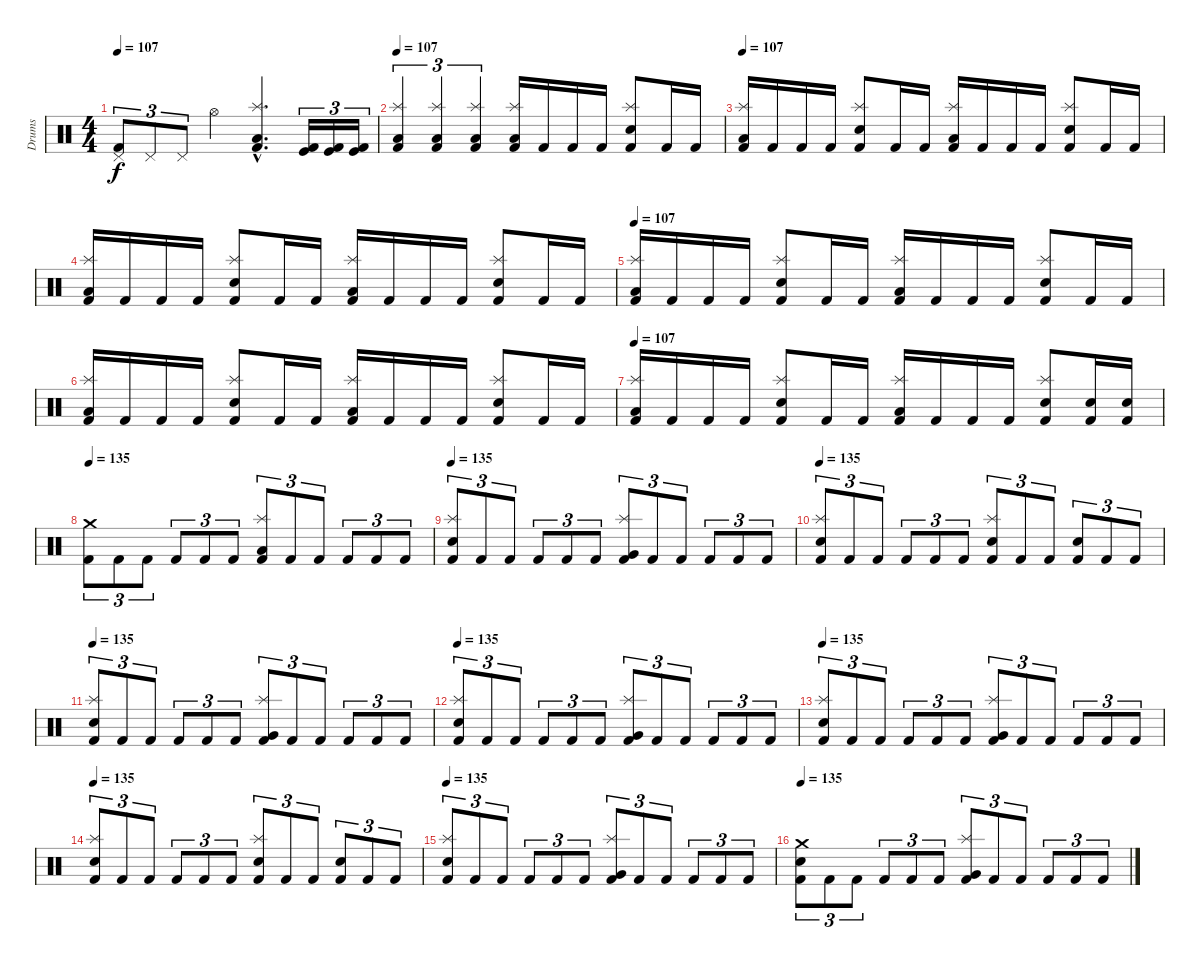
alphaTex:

\track ("Drums" "Drums") {instrument percussion}
\staff {score}
\articulation defaults
\ts (4 4)
\tempo 107
\clef neutral
\ks c
("Pedal Hi-Hat (hit)" "Kick (hit) 2").8{tu (3 2) dy f volume 12} "Pedal Hi-Hat (hit)".8{tu (3 2)} "Pedal Hi-Hat (hit)".8{tu (3 2)} "Hi-Hat (open)".4 ("Splash (hit)"{hac} "Low Floor Tom (hit)"{hac} "Kick (hit) 2"{hac}).4{d} ("Kick (hit)" "Kick (hit) 2").16{tu (3 2)} ("Kick (hit)" "Kick (hit) 2").16{tu (3 2)} ("Kick (hit)" "Kick (hit) 2").16{tu (3 2)} |
\tempo 107
("Splash (hit)" "Low Floor Tom (hit)" "Kick (hit) 2").4{tu (3 2)} ("Splash (hit)" "Low Floor Tom (hit)" "Kick (hit) 2").4{tu (3 2)} ("Splash (hit)" "Low Floor Tom (hit)" "Kick (hit) 2").4{tu (3 2)} ("Splash (hit)" "Low Floor Tom (hit)" "Kick (hit) 2").16 "Kick (hit) 2".16 "Kick (hit) 2".16 "Kick (hit) 2".16 ("Splash (hit)" "Snare (hit) 2" "Kick (hit) 2").8 "Kick (hit) 2".16 "Kick (hit) 2".16 |
\tempo 107
("Splash (hit)" "Low Floor Tom (hit)" "Kick (hit) 2").16 "Kick (hit) 2".16 "Kick (hit) 2".16 "Kick (hit) 2".16 ("Splash (hit)" "Snare (hit) 2" "Kick (hit) 2").8 "Kick (hit) 2".16 "Kick (hit) 2".16 ("Splash (hit)" "Low Floor Tom (hit)" "Kick (hit) 2").16 "Kick (hit) 2".16 "Kick (hit) 2".16 "Kick (hit) 2".16 ("Splash (hit)" "Snare (hit) 2" "Kick (hit) 2").8 "Kick (hit) 2".16 "Kick (hit) 2".16 |
("Splash (hit)" "Low Floor Tom (hit)" "Kick (hit) 2").16 "Kick (hit) 2".16 "Kick (hit) 2".16 "Kick (hit) 2".16 ("Splash (hit)" "Snare (hit) 2" "Kick (hit) 2").8 "Kick (hit) 2".16 "Kick (hit) 2".16 ("Splash (hit)" "Low Floor Tom (hit)" "Kick (hit) 2").16 "Kick (hit) 2".16 "Kick (hit) 2".16 "Kick (hit) 2".16 ("Splash (hit)" "Snare (hit) 2" "Kick (hit) 2").8 "Kick (hit) 2".16 "Kick (hit) 2".16 |
\tempo 107
("Splash (hit)" "Low Floor Tom (hit)" "Kick (hit) 2").16 "Kick (hit) 2".16 "Kick (hit) 2".16 "Kick (hit) 2".16 ("Splash (hit)" "Snare (hit) 2" "Kick (hit) 2").8 "Kick (hit) 2".16 "Kick (hit) 2".16 ("Splash (hit)" "Low Floor Tom (hit)" "Kick (hit) 2").16 "Kick (hit) 2".16 "Kick (hit) 2".16 "Kick (hit) 2".16 ("Splash (hit)" "Snare (hit) 2" "Kick (hit) 2").8 "Kick (hit) 2".16 "Kick (hit) 2".16 |
("Splash (hit)" "Low Floor Tom (hit)" "Kick (hit) 2").16 "Kick (hit) 2".16 "Kick (hit) 2".16 "Kick (hit) 2".16 ("Splash (hit)" "Snare (hit) 2" "Kick (hit) 2").8 "Kick (hit) 2".16 "Kick (hit) 2".16 ("Splash (hit)" "Low Floor Tom (hit)" "Kick (hit) 2").16 "Kick (hit) 2".16 "Kick (hit) 2".16 "Kick (hit) 2".16 ("Splash (hit)" "Snare (hit) 2" "Kick (hit) 2").8 "Kick (hit) 2".16 "Kick (hit) 2".16 |
\tempo 107
("Splash (hit)" "Low Floor Tom (hit)" "Kick (hit) 2").16 "Kick (hit) 2".16 "Kick (hit) 2".16 "Kick (hit) 2".16 ("Splash (hit)" "Snare (hit) 2" "Kick (hit) 2").8 "Kick (hit) 2".16 "Kick (hit) 2".16 ("Splash (hit)" "Low Floor Tom (hit)" "Kick (hit) 2").16 "Kick (hit) 2".16 "Kick (hit) 2".16 "Kick (hit) 2".16 ("Splash (hit)" "Snare (hit) 2" "Kick (hit) 2").8 ("Snare (hit) 2" "Kick (hit) 2").16 ("Snare (hit) 2" "Kick (hit) 2").16 |
\tempo 135
("Crash medium (hit)" "Kick (hit) 2").8{tu (3 2)} "Kick (hit) 2".8{tu (3 2)} "Kick (hit) 2".8{tu (3 2)} "Kick (hit) 2".8{tu (3 2)} "Kick (hit) 2".8{tu (3 2)} "Kick (hit) 2".8{tu (3 2)} ("Splash (hit)" "Low Floor Tom (hit)" "Kick (hit) 2").8{tu (3 2)} "Kick (hit) 2".8{tu (3 2)} "Kick (hit) 2".8{tu (3 2)} "Kick (hit) 2".8{tu (3 2)} "Kick (hit) 2".8{tu (3 2)} "Kick (hit) 2".8{tu (3 2)} |
\tempo 135
("Splash (hit)" "Snare (hit) 2" "Kick (hit) 2").8{tu (3 2)} "Kick (hit) 2".8{tu (3 2)} "Kick (hit) 2".8{tu (3 2)} "Kick (hit) 2".8{tu (3 2)} "Kick (hit) 2".8{tu (3 2)} "Kick (hit) 2".8{tu (3 2)} ("Splash (hit)" "Very Low Tom (hit)" "Kick (hit) 2").8{tu (3 2)} "Kick (hit) 2".8{tu (3 2)} "Kick (hit) 2".8{tu (3 2)} "Kick (hit) 2".8{tu (3 2)} "Kick (hit) 2".8{tu (3 2)} "Kick (hit) 2".8{tu (3 2)} |
\tempo 135
("Splash (hit)" "Snare (hit) 2" "Kick (hit) 2").8{tu (3 2)} "Kick (hit) 2".8{tu (3 2)} "Kick (hit) 2".8{tu (3 2)} "Kick (hit) 2".8{tu (3 2)} "Kick (hit) 2".8{tu (3 2)} "Kick (hit) 2".8{tu (3 2)} ("Splash (hit)" "Snare (hit) 2" "Kick (hit) 2").8{tu (3 2)} "Kick (hit) 2".8{tu (3 2)} "Kick (hit) 2".8{tu (3 2)} ("Snare (hit) 2" "Kick (hit) 2").8{tu (3 2)} "Kick (hit) 2".8{tu (3 2)} "Kick (hit) 2".8{tu (3 2)} |
\tempo 135
("Splash (hit)" "Snare (hit) 2" "Kick (hit) 2").8{tu (3 2)} "Kick (hit) 2".8{tu (3 2)} "Kick (hit) 2".8{tu (3 2)} "Kick (hit) 2".8{tu (3 2)} "Kick (hit) 2".8{tu (3 2)} "Kick (hit) 2".8{tu (3 2)} ("Splash (hit)" "Very Low Tom (hit)" "Kick (hit) 2").8{tu (3 2)} "Kick (hit) 2".8{tu (3 2)} "Kick (hit) 2".8{tu (3 2)} "Kick (hit) 2".8{tu (3 2)} "Kick (hit) 2".8{tu (3 2)} "Kick (hit) 2".8{tu (3 2)} |
\tempo 135
("Splash (hit)" "Snare (hit) 2" "Kick (hit) 2").8{tu (3 2)} "Kick (hit) 2".8{tu (3 2)} "Kick (hit) 2".8{tu (3 2)} "Kick (hit) 2".8{tu (3 2)} "Kick (hit) 2".8{tu (3 2)} "Kick (hit) 2".8{tu (3 2)} ("Splash (hit)" "Very Low Tom (hit)" "Kick (hit) 2").8{tu (3 2)} "Kick (hit) 2".8{tu (3 2)} "Kick (hit) 2".8{tu (3 2)} "Kick (hit) 2".8{tu (3 2)} "Kick (hit) 2".8{tu (3 2)} "Kick (hit) 2".8{tu (3 2)} |
\tempo 135
("Splash (hit)" "Snare (hit) 2" "Kick (hit) 2").8{tu (3 2)} "Kick (hit) 2".8{tu (3 2)} "Kick (hit) 2".8{tu (3 2)} "Kick (hit) 2".8{tu (3 2)} "Kick (hit) 2".8{tu (3 2)} "Kick (hit) 2".8{tu (3 2)} ("Splash (hit)" "Very Low Tom (hit)" "Kick (hit) 2").8{tu (3 2)} "Kick (hit) 2".8{tu (3 2)} "Kick (hit) 2".8{tu (3 2)} "Kick (hit) 2".8{tu (3 2)} "Kick (hit) 2".8{tu (3 2)} "Kick (hit) 2".8{tu (3 2)} |
\tempo 135
("Splash (hit)" "Snare (hit) 2" "Kick (hit) 2").8{tu (3 2)} "Kick (hit) 2".8{tu (3 2)} "Kick (hit) 2".8{tu (3 2)} "Kick (hit) 2".8{tu (3 2)} "Kick (hit) 2".8{tu (3 2)} "Kick (hit) 2".8{tu (3 2)} ("Splash (hit)" "Snare (hit) 2" "Kick (hit) 2").8{tu (3 2)} "Kick (hit) 2".8{tu (3 2)} "Kick (hit) 2".8{tu (3 2)} ("Snare (hit) 2" "Kick (hit) 2").8{tu (3 2)} "Kick (hit) 2".8{tu (3 2)} "Kick (hit) 2".8{tu (3 2)} |
\tempo 135
("Splash (hit)" "Snare (hit) 2" "Kick (hit) 2").8{tu (3 2)} "Kick (hit) 2".8{tu (3 2)} "Kick (hit) 2".8{tu (3 2)} "Kick (hit) 2".8{tu (3 2)} "Kick (hit) 2".8{tu (3 2)} "Kick (hit) 2".8{tu (3 2)} ("Splash (hit)" "Very Low Tom (hit)" "Kick (hit) 2").8{tu (3 2)} "Kick (hit) 2".8{tu (3 2)} "Kick (hit) 2".8{tu (3 2)} "Kick (hit) 2".8{tu (3 2)} "Kick (hit) 2".8{tu (3 2)} "Kick (hit) 2".8{tu (3 2)} |
\tempo 135
("Crash medium (hit)" "Snare (hit) 2" "Kick (hit) 2").8{tu (3 2)} "Kick (hit) 2".8{tu (3 2)} "Kick (hit) 2".8{tu (3 2)} "Kick (hit) 2".8{tu (3 2)} "Kick (hit) 2".8{tu (3 2)} "Kick (hit) 2".8{tu (3 2)} ("Splash (hit)" "Very Low Tom (hit)" "Kick (hit) 2").8{tu (3 2)} "Kick (hit) 2".8{tu (3 2)} "Kick (hit) 2".8{tu (3 2)} "Kick (hit) 2".8{tu (3 2)} "Kick (hit) 2".8{tu (3 2)} "Kick (hit) 2".8{tu (3 2)}
